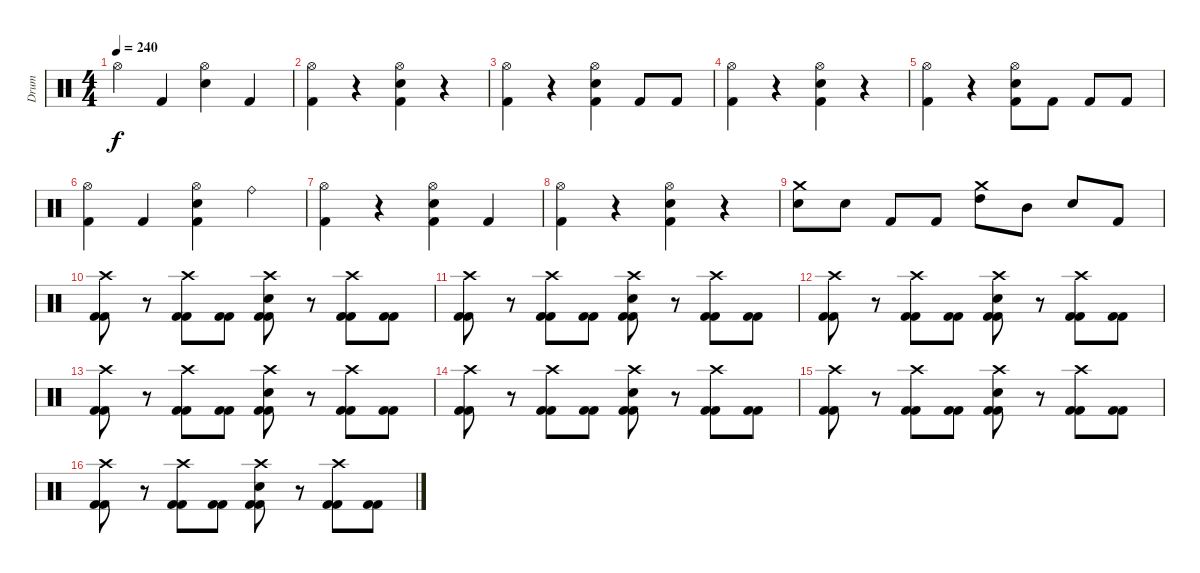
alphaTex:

\track ("Drum" "Drum") {instrument percussion}
\staff {score}
\articulation defaults
\ts (4 4)
\tempo 240
\clef neutral
\ks c "Hi-Hat (open)".4{dy f} "Kick (hit) 2".4
("Hi-Hat (open)" "Electric Snare (hit)").4 "Kick (hit) 2".4 |
("Hi-Hat (open)" "Kick (hit) 2").4 r.4 ("Hi-Hat (open)" "Electric Snare (hit)" "Kick (hit) 2").4 r.4 |
("Hi-Hat (open)" "Kick (hit) 2").4 r.4 ("Hi-Hat (open)" "Electric Snare (hit)" "Kick (hit) 2").4 "Kick (hit) 2".8 "Kick (hit) 2".8 |
("Hi-Hat (open)" "Kick (hit) 2").4 r.4 ("Hi-Hat (open)" "Electric Snare (hit)" "Kick (hit) 2").4 r.4 |
("Hi-Hat (open)" "Kick (hit) 2").4 r.4 ("Hi-Hat (open)" "Electric Snare (hit)" "Kick (hit) 2").8 "Kick (hit) 2".8 "Kick (hit) 2".8 "Kick (hit) 2".8 |
("Hi-Hat (open)" "Kick (hit) 2").4 "Kick (hit) 2".4 ("Hi-Hat (open)" "Electric Snare (hit)" "Kick (hit) 2").4 "Ride (bell)".4 |
("Hi-Hat (open)" "Kick (hit) 2").4 r.4 ("Hi-Hat (open)" "Electric Snare (hit)" "Kick (hit) 2").4 "Kick (hit) 2".4 |
("Hi-Hat (open)" "Kick (hit) 2").4 r.4 ("Hi-Hat (open)" "Electric Snare (hit)" "Kick (hit) 2").4 r.4 |
("Crash medium (hit)" "Electric Snare (hit)").8 "Electric Snare (hit)".8 "Kick (hit) 2".8 "Kick (hit) 2".8 ("Crash medium (hit)" "High Tom (hit)").8 "Mid Tom (hit)".8 "Electric Snare (hit)".8 "Kick (hit) 2".8 |
("Crash high (hit)" "Kick (hit) 2" "Kick (hit) 2").8 r.8 ("Crash high (hit)" "Kick (hit) 2" "Kick (hit) 2").8 ("Kick (hit) 2" "Kick (hit) 2").8 ("Crash high (hit)" "Electric Snare (hit)" "Kick (hit) 2" "Kick (hit) 2").8 r.8 ("Crash high (hit)" "Kick (hit) 2" "Kick (hit) 2").8 ("Kick (hit) 2" "Kick (hit) 2").8 |
("Crash high (hit)" "Kick (hit) 2" "Kick (hit) 2").8 r.8 ("Crash high (hit)" "Kick (hit) 2" "Kick (hit) 2").8 ("Kick (hit) 2" "Kick (hit) 2").8 ("Crash high (hit)" "Electric Snare (hit)" "Kick (hit) 2" "Kick (hit) 2").8 r.8 ("Crash high (hit)" "Kick (hit) 2" "Kick (hit) 2").8 ("Kick (hit) 2" "Kick (hit) 2").8 |
("Crash high (hit)" "Kick (hit) 2" "Kick (hit) 2").8 r.8 ("Crash high (hit)" "Kick (hit) 2" "Kick (hit) 2").8 ("Kick (hit) 2" "Kick (hit) 2").8 ("Crash high (hit)" "Electric Snare (hit)" "Kick (hit) 2" "Kick (hit) 2").8 r.8 ("Crash high (hit)" "Kick (hit) 2" "Kick (hit) 2").8 ("Kick (hit) 2" "Kick (hit) 2").8 |
("Crash high (hit)" "Kick (hit) 2" "Kick (hit) 2").8 r.8 ("Crash high (hit)" "Kick (hit) 2" "Kick (hit) 2").8 ("Kick (hit) 2" "Kick (hit) 2").8 ("Crash high (hit)" "Electric Snare (hit)" "Kick (hit) 2" "Kick (hit) 2").8 r.8 ("Crash high (hit)" "Kick (hit) 2" "Kick (hit) 2").8 ("Kick (hit) 2" "Kick (hit) 2").8 |
("Crash high (hit)" "Kick (hit) 2" "Kick (hit) 2").8 r.8 ("Crash high (hit)" "Kick (hit) 2" "Kick (hit) 2").8 ("Kick (hit) 2" "Kick (hit) 2").8 ("Crash high (hit)" "Electric Snare (hit)" "Kick (hit) 2" "Kick (hit) 2").8 r.8 ("Crash high (hit)" "Kick (hit) 2" "Kick (hit) 2").8 ("Kick (hit) 2" "Kick (hit) 2").8 |
("Crash high (hit)" "Kick (hit) 2" "Kick (hit) 2").8 r.8 ("Crash high (hit)" "Kick (hit) 2" "Kick (hit) 2").8 ("Kick (hit) 2" "Kick (hit) 2").8 ("Crash high (hit)" "Electric Snare (hit)" "Kick (hit) 2" "Kick (hit) 2").8 r.8 ("Crash high (hit)" "Kick (hit) 2" "Kick (hit) 2").8 ("Kick (hit) 2" "Kick (hit) 2").8 |
("Crash high (hit)" "Kick (hit) 2" "Kick (hit) 2").8 r.8 ("Crash high (hit)" "Kick (hit) 2" "Kick (hit) 2").8 ("Kick (hit) 2" "Kick (hit) 2").8 ("Crash high (hit)" "Electric Snare (hit)" "Kick (hit) 2" "Kick (hit) 2").8 r.8 ("Crash high (hit)" "Kick (hit) 2" "Kick (hit) 2").8 ("Kick (hit) 2" "Kick (hit) 2").8
